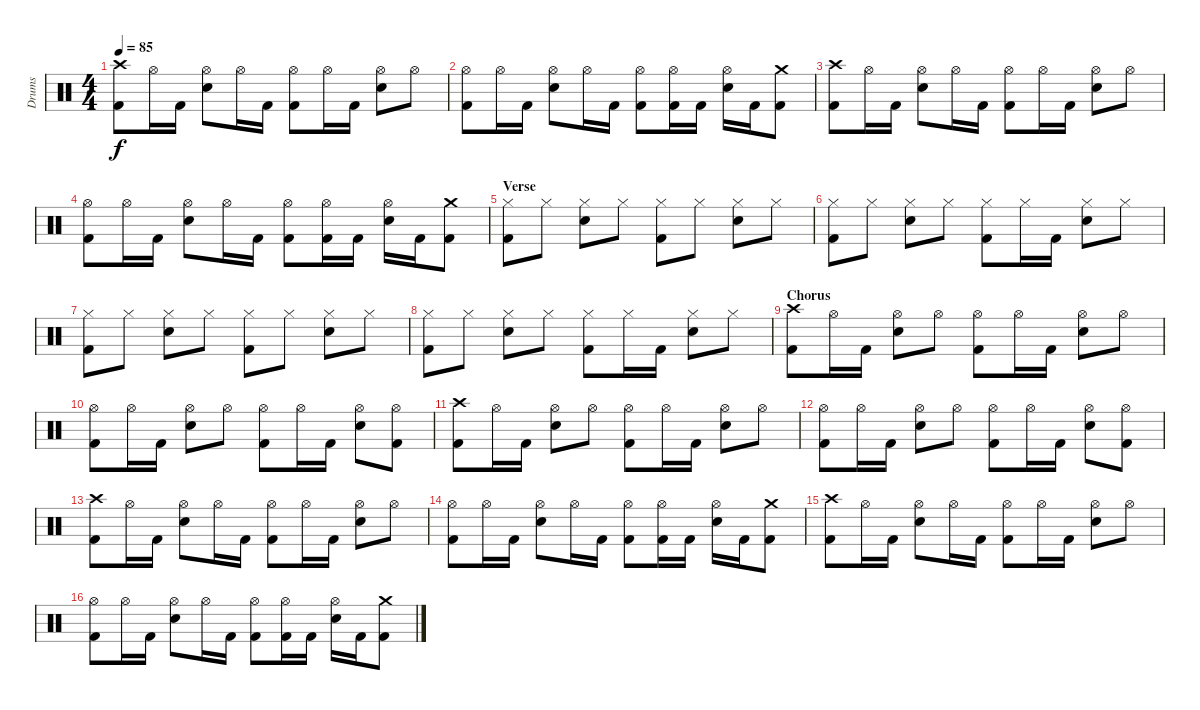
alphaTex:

\track ("Drums" "Drums") {instrument percussion}
\staff {score}
\articulation defaults
\ts (4 4)
\section ("" "")
\tempo 85
\clef neutral
\ks c
("Crash high (hit)" "Kick (hit) 2").8{dy f} "Hi-Hat (open)".16 "Kick (hit) 2".16 ("Hi-Hat (open)" "Electric Snare (hit)").8 "Hi-Hat (open)".16 "Kick (hit) 2".16 ("Hi-Hat (open)" "Kick (hit) 2").8 "Hi-Hat (open)".16 "Kick (hit) 2".16 ("Hi-Hat (open)" "Electric Snare (hit)").8 "Hi-Hat (open)".8 |
("Hi-Hat (open)" "Kick (hit) 2").8 "Hi-Hat (open)".16 "Kick (hit) 2".16 ("Hi-Hat (open)" "Electric Snare (hit)").8 "Hi-Hat (open)".16 "Kick (hit) 2".16 ("Hi-Hat (open)" "Kick (hit) 2").8 ("Hi-Hat (open)" "Kick (hit) 2").16 "Kick (hit) 2".16 ("Hi-Hat (open)" "Electric Snare (hit)").16 "Kick (hit) 2".16 ("Crash medium (hit)" "Kick (hit) 2").8 |
("Crash high (hit)" "Kick (hit) 2").8 "Hi-Hat (open)".16 "Kick (hit) 2".16 ("Hi-Hat (open)" "Electric Snare (hit)").8 "Hi-Hat (open)".16 "Kick (hit) 2".16 ("Hi-Hat (open)" "Kick (hit) 2").8 "Hi-Hat (open)".16 "Kick (hit) 2".16 ("Hi-Hat (open)" "Electric Snare (hit)").8 "Hi-Hat (open)".8 |
("Hi-Hat (open)" "Kick (hit) 2").8 "Hi-Hat (open)".16 "Kick (hit) 2".16 ("Hi-Hat (open)" "Electric Snare (hit)").8 "Hi-Hat (open)".16 "Kick (hit) 2".16 ("Hi-Hat (open)" "Kick (hit) 2").8 ("Hi-Hat (open)" "Kick (hit) 2").16 "Kick (hit) 2".16 ("Hi-Hat (open)" "Electric Snare (hit)").16 "Kick (hit) 2".16 ("Crash medium (hit)" "Kick (hit) 2").8 |
\section ("" "Verse")
("Hi-Hat (closed)" "Kick (hit) 2").8 "Hi-Hat (closed)".8 ("Hi-Hat (closed)" "Electric Snare (hit)").8 "Hi-Hat (closed)".8 ("Hi-Hat (closed)" "Kick (hit) 2").8 "Hi-Hat (closed)".8 ("Hi-Hat (closed)" "Electric Snare (hit)").8 "Hi-Hat (closed)".8 |
("Hi-Hat (closed)" "Kick (hit) 2").8 "Hi-Hat (closed)".8 ("Hi-Hat (closed)" "Electric Snare (hit)").8 "Hi-Hat (closed)".8 ("Hi-Hat (closed)" "Kick (hit) 2").8 "Hi-Hat (closed)".16 "Kick (hit) 2".16 ("Hi-Hat (closed)" "Electric Snare (hit)").8 "Hi-Hat (closed)".8 |
("Hi-Hat (closed)" "Kick (hit) 2").8 "Hi-Hat (closed)".8 ("Hi-Hat (closed)" "Electric Snare (hit)").8 "Hi-Hat (closed)".8 ("Hi-Hat (closed)" "Kick (hit) 2").8 "Hi-Hat (closed)".8 ("Hi-Hat (closed)" "Electric Snare (hit)").8 "Hi-Hat (closed)".8 |
("Hi-Hat (closed)" "Kick (hit) 2").8 "Hi-Hat (closed)".8 ("Hi-Hat (closed)" "Electric Snare (hit)").8 "Hi-Hat (closed)".8 ("Hi-Hat (closed)" "Kick (hit) 2").8 "Hi-Hat (closed)".16 "Kick (hit) 2".16 ("Hi-Hat (closed)" "Electric Snare (hit)").8 "Hi-Hat (closed)".8 |
\section ("" "Chorus")
("Crash high (hit)" "Kick (hit) 2").8 "Hi-Hat (open)".16 "Kick (hit) 2".16 ("Hi-Hat (open)" "Electric Snare (hit)").8 "Hi-Hat (open)".8 ("Hi-Hat (open)" "Kick (hit) 2").8 "Hi-Hat (open)".16 "Kick (hit) 2".16 ("Hi-Hat (open)" "Electric Snare (hit)").8 "Hi-Hat (open)".8 |
("Hi-Hat (open)" "Kick (hit) 2").8 "Hi-Hat (open)".16 "Kick (hit) 2".16 ("Hi-Hat (open)" "Electric Snare (hit)").8 "Hi-Hat (open)".8 ("Hi-Hat (open)" "Kick (hit) 2").8 "Hi-Hat (open)".16 "Kick (hit) 2".16 ("Hi-Hat (open)" "Electric Snare (hit)").8 ("Hi-Hat (open)" "Kick (hit) 2").8 |
("Crash high (hit)" "Kick (hit) 2").8 "Hi-Hat (open)".16 "Kick (hit) 2".16 ("Hi-Hat (open)" "Electric Snare (hit)").8 "Hi-Hat (open)".8 ("Hi-Hat (open)" "Kick (hit) 2").8 "Hi-Hat (open)".16 "Kick (hit) 2".16 ("Hi-Hat (open)" "Electric Snare (hit)").8 "Hi-Hat (open)".8 |
("Hi-Hat (open)" "Kick (hit) 2").8 "Hi-Hat (open)".16 "Kick (hit) 2".16 ("Hi-Hat (open)" "Electric Snare (hit)").8 "Hi-Hat (open)".8 ("Hi-Hat (open)" "Kick (hit) 2").8 "Hi-Hat (open)".16 "Kick (hit) 2".16 ("Hi-Hat (open)" "Electric Snare (hit)").8 ("Hi-Hat (open)" "Kick (hit) 2").8 |
\section ("" "")
("Crash high (hit)" "Kick (hit) 2").8 "Hi-Hat (open)".16 "Kick (hit) 2".16 ("Hi-Hat (open)" "Electric Snare (hit)").8 "Hi-Hat (open)".16 "Kick (hit) 2".16 ("Hi-Hat (open)" "Kick (hit) 2").8 "Hi-Hat (open)".16 "Kick (hit) 2".16 ("Hi-Hat (open)" "Electric Snare (hit)").8 "Hi-Hat (open)".8 |
("Hi-Hat (open)" "Kick (hit) 2").8 "Hi-Hat (open)".16 "Kick (hit) 2".16 ("Hi-Hat (open)" "Electric Snare (hit)").8 "Hi-Hat (open)".16 "Kick (hit) 2".16 ("Hi-Hat (open)" "Kick (hit) 2").8 ("Hi-Hat (open)" "Kick (hit) 2").16 "Kick (hit) 2".16 ("Hi-Hat (open)" "Electric Snare (hit)").16 "Kick (hit) 2".16 ("Crash medium (hit)" "Kick (hit) 2").8 |
("Crash high (hit)" "Kick (hit) 2").8 "Hi-Hat (open)".16 "Kick (hit) 2".16 ("Hi-Hat (open)" "Electric Snare (hit)").8 "Hi-Hat (open)".16 "Kick (hit) 2".16 ("Hi-Hat (open)" "Kick (hit) 2").8 "Hi-Hat (open)".16 "Kick (hit) 2".16 ("Hi-Hat (open)" "Electric Snare (hit)").8 "Hi-Hat (open)".8 |
("Hi-Hat (open)" "Kick (hit) 2").8 "Hi-Hat (open)".16 "Kick (hit) 2".16 ("Hi-Hat (open)" "Electric Snare (hit)").8 "Hi-Hat (open)".16 "Kick (hit) 2".16 ("Hi-Hat (open)" "Kick (hit) 2").8 ("Hi-Hat (open)" "Kick (hit) 2").16 "Kick (hit) 2".16 ("Hi-Hat (open)" "Electric Snare (hit)").16 "Kick (hit) 2".16 ("Crash medium (hit)" "Kick (hit) 2").8
